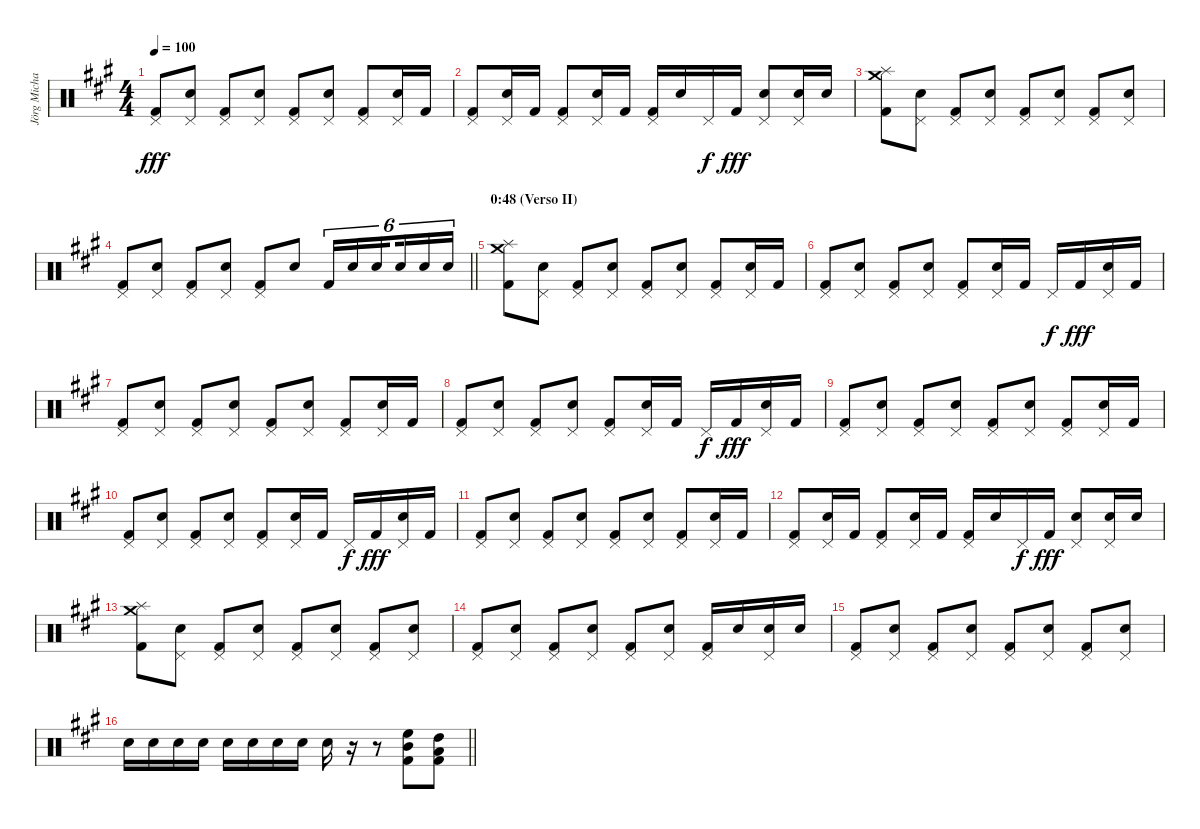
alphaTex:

\track ("Jörg Michael (Batería)" "Jörg Micha") {instrument percussion}
\staff {score}
\articulation defaults
\ts (4 4)
\tempo 100
\clef neutral
\ks a
("Pedal Hi-Hat (hit)" "Kick (hit) 2").8{dy fff} ("Pedal Hi-Hat (hit)" "Snare (hit) 2").8 ("Pedal Hi-Hat (hit)" "Kick (hit) 2").8 ("Pedal Hi-Hat (hit)" "Snare (hit) 2").8 ("Pedal Hi-Hat (hit)" "Kick (hit) 2").8 ("Pedal Hi-Hat (hit)" "Snare (hit) 2").8 ("Pedal Hi-Hat (hit)" "Kick (hit) 2").8 ("Pedal Hi-Hat (hit)" "Snare (hit) 2").16 "Kick (hit) 2".16 |
("Pedal Hi-Hat (hit)" "Kick (hit) 2").8 ("Pedal Hi-Hat (hit)" "Snare (hit) 2").16 "Kick (hit) 2".16 ("Pedal Hi-Hat (hit)" "Kick (hit) 2").8 ("Pedal Hi-Hat (hit)" "Snare (hit) 2").16 "Kick (hit) 2".16 ("Pedal Hi-Hat (hit)" "Kick (hit) 2").16 "Snare (hit) 2".16 "Pedal Hi-Hat (hit)".16{dy f} "Kick (hit) 2".16{dy fff} ("Pedal Hi-Hat (hit)" "Snare (hit) 2").8 ("Pedal Hi-Hat (hit)" "Snare (hit) 2").16 "Snare (hit) 2".16 |
("Crash medium (hit)" "Splash (hit)" "Kick (hit) 2").8 ("Pedal Hi-Hat (hit)" "Snare (hit) 2").8 ("Pedal Hi-Hat (hit)" "Kick (hit) 2").8 ("Pedal Hi-Hat (hit)" "Snare (hit) 2").8 ("Pedal Hi-Hat (hit)" "Kick (hit) 2").8 ("Pedal Hi-Hat (hit)" "Snare (hit) 2").8 ("Pedal Hi-Hat (hit)" "Kick (hit) 2").8 ("Pedal Hi-Hat (hit)" "Snare (hit) 2").8 |
\barLineRight lightlight
("Pedal Hi-Hat (hit)" "Kick (hit) 2").8 ("Pedal Hi-Hat (hit)" "Snare (hit) 2").8 ("Pedal Hi-Hat (hit)" "Kick (hit) 2").8 ("Pedal Hi-Hat (hit)" "Snare (hit) 2").8 ("Pedal Hi-Hat (hit)" "Kick (hit) 2").8 "Snare (hit) 2".8 "Kick (hit) 2".16{tu (6 4)} "Snare (hit) 2".16{tu (6 4)} "Snare (hit) 2".16{tu (6 4) beam splitsecondary} "Snare (hit) 2".16{tu (6 4)} "Snare (hit) 2".16{tu (6 4)} "Snare (hit) 2".16{tu (6 4)} |
\section ("" "0:48 (Verso II)")
("Crash medium (hit)" "Splash (hit)" "Kick (hit) 2").8 ("Pedal Hi-Hat (hit)" "Snare (hit) 2").8 ("Pedal Hi-Hat (hit)" "Kick (hit) 2").8 ("Pedal Hi-Hat (hit)" "Snare (hit) 2").8 ("Pedal Hi-Hat (hit)" "Kick (hit) 2").8 ("Pedal Hi-Hat (hit)" "Snare (hit) 2").8 ("Pedal Hi-Hat (hit)" "Kick (hit) 2").8 ("Pedal Hi-Hat (hit)" "Snare (hit) 2").16 "Kick (hit) 2".16 |
("Pedal Hi-Hat (hit)" "Kick (hit) 2").8 ("Pedal Hi-Hat (hit)" "Snare (hit) 2").8 ("Pedal Hi-Hat (hit)" "Kick (hit) 2").8 ("Pedal Hi-Hat (hit)" "Snare (hit) 2").8 ("Pedal Hi-Hat (hit)" "Kick (hit) 2").8 ("Pedal Hi-Hat (hit)" "Snare (hit) 2").16 "Kick (hit) 2".16 "Pedal Hi-Hat (hit)".16{dy f} "Kick (hit) 2".16{dy fff} ("Pedal Hi-Hat (hit)" "Snare (hit) 2").16 "Kick (hit) 2".16 |
("Pedal Hi-Hat (hit)" "Kick (hit) 2").8 ("Pedal Hi-Hat (hit)" "Snare (hit) 2").8 ("Pedal Hi-Hat (hit)" "Kick (hit) 2").8 ("Pedal Hi-Hat (hit)" "Snare (hit) 2").8 ("Pedal Hi-Hat (hit)" "Kick (hit) 2").8 ("Pedal Hi-Hat (hit)" "Snare (hit) 2").8 ("Pedal Hi-Hat (hit)" "Kick (hit) 2").8 ("Pedal Hi-Hat (hit)" "Snare (hit) 2").16 "Kick (hit) 2".16 |
("Pedal Hi-Hat (hit)" "Kick (hit) 2").8 ("Pedal Hi-Hat (hit)" "Snare (hit) 2").8 ("Pedal Hi-Hat (hit)" "Kick (hit) 2").8 ("Pedal Hi-Hat (hit)" "Snare (hit) 2").8 ("Pedal Hi-Hat (hit)" "Kick (hit) 2").8 ("Pedal Hi-Hat (hit)" "Snare (hit) 2").16 "Kick (hit) 2".16 "Pedal Hi-Hat (hit)".16{dy f} "Kick (hit) 2".16{dy fff} ("Pedal Hi-Hat (hit)" "Snare (hit) 2").16 "Kick (hit) 2".16 |
("Pedal Hi-Hat (hit)" "Kick (hit) 2").8 ("Pedal Hi-Hat (hit)" "Snare (hit) 2").8 ("Pedal Hi-Hat (hit)" "Kick (hit) 2").8 ("Pedal Hi-Hat (hit)" "Snare (hit) 2").8 ("Pedal Hi-Hat (hit)" "Kick (hit) 2").8 ("Pedal Hi-Hat (hit)" "Snare (hit) 2").8 ("Pedal Hi-Hat (hit)" "Kick (hit) 2").8 ("Pedal Hi-Hat (hit)" "Snare (hit) 2").16 "Kick (hit) 2".16 |
("Pedal Hi-Hat (hit)" "Kick (hit) 2").8 ("Pedal Hi-Hat (hit)" "Snare (hit) 2").8 ("Pedal Hi-Hat (hit)" "Kick (hit) 2").8 ("Pedal Hi-Hat (hit)" "Snare (hit) 2").8 ("Pedal Hi-Hat (hit)" "Kick (hit) 2").8 ("Pedal Hi-Hat (hit)" "Snare (hit) 2").16 "Kick (hit) 2".16 "Pedal Hi-Hat (hit)".16{dy f} "Kick (hit) 2".16{dy fff} ("Pedal Hi-Hat (hit)" "Snare (hit) 2").16 "Kick (hit) 2".16 |
("Pedal Hi-Hat (hit)" "Kick (hit) 2").8 ("Pedal Hi-Hat (hit)" "Snare (hit) 2").8 ("Pedal Hi-Hat (hit)" "Kick (hit) 2").8 ("Pedal Hi-Hat (hit)" "Snare (hit) 2").8 ("Pedal Hi-Hat (hit)" "Kick (hit) 2").8 ("Pedal Hi-Hat (hit)" "Snare (hit) 2").8 ("Pedal Hi-Hat (hit)" "Kick (hit) 2").8 ("Pedal Hi-Hat (hit)" "Snare (hit) 2").16 "Kick (hit) 2".16 |
("Pedal Hi-Hat (hit)" "Kick (hit) 2").8 ("Pedal Hi-Hat (hit)" "Snare (hit) 2").16 "Kick (hit) 2".16 ("Pedal Hi-Hat (hit)" "Kick (hit) 2").8 ("Pedal Hi-Hat (hit)" "Snare (hit) 2").16 "Kick (hit) 2".16 ("Pedal Hi-Hat (hit)" "Kick (hit) 2").16 "Snare (hit) 2".16 "Pedal Hi-Hat (hit)".16{dy f} "Kick (hit) 2".16{dy fff} ("Pedal Hi-Hat (hit)" "Snare (hit) 2").8 ("Pedal Hi-Hat (hit)" "Snare (hit) 2").16 "Snare (hit) 2".16 |
("Crash medium (hit)" "Splash (hit)" "Kick (hit) 2").8 ("Pedal Hi-Hat (hit)" "Snare (hit) 2").8 ("Pedal Hi-Hat (hit)" "Kick (hit) 2").8 ("Pedal Hi-Hat (hit)" "Snare (hit) 2").8 ("Pedal Hi-Hat (hit)" "Kick (hit) 2").8 ("Pedal Hi-Hat (hit)" "Snare (hit) 2").8 ("Pedal Hi-Hat (hit)" "Kick (hit) 2").8 ("Pedal Hi-Hat (hit)" "Snare (hit) 2").8 |
("Pedal Hi-Hat (hit)" "Kick (hit) 2").8 ("Pedal Hi-Hat (hit)" "Snare (hit) 2").8 ("Pedal Hi-Hat (hit)" "Kick (hit) 2").8 ("Pedal Hi-Hat (hit)" "Snare (hit) 2").8 ("Pedal Hi-Hat (hit)" "Kick (hit) 2").8 ("Pedal Hi-Hat (hit)" "Snare (hit) 2").8 ("Pedal Hi-Hat (hit)" "Kick (hit) 2").16 "Snare (hit) 2".16 ("Pedal Hi-Hat (hit)" "Snare (hit) 2").16 "Snare (hit) 2".16 |
("Pedal Hi-Hat (hit)" "Kick (hit) 2").8 ("Pedal Hi-Hat (hit)" "Snare (hit) 2").8 ("Pedal Hi-Hat (hit)" "Kick (hit) 2").8 ("Pedal Hi-Hat (hit)" "Snare (hit) 2").8 ("Pedal Hi-Hat (hit)" "Kick (hit) 2").8 ("Pedal Hi-Hat (hit)" "Snare (hit) 2").8 ("Pedal Hi-Hat (hit)" "Kick (hit) 2").8 ("Pedal Hi-Hat (hit)" "Snare (hit) 2").8 |
\barLineRight lightlight "Snare (hit) 2".16 "Snare (hit) 2".16 "Snare (hit) 2".16 "Snare (hit) 2".16 "Snare (hit) 2".16 "Snare (hit) 2".16 "Snare (hit) 2".16 "Snare (hit) 2".16 "Snare (hit) 2".16
r.16 r.8 ("Mid Tom (hit)" "High Floor Tom (hit)" "Kick (hit) 2").8{volume 16} ("Low Tom (hit)" "High Tom (hit)" "Kick (hit) 2").8
